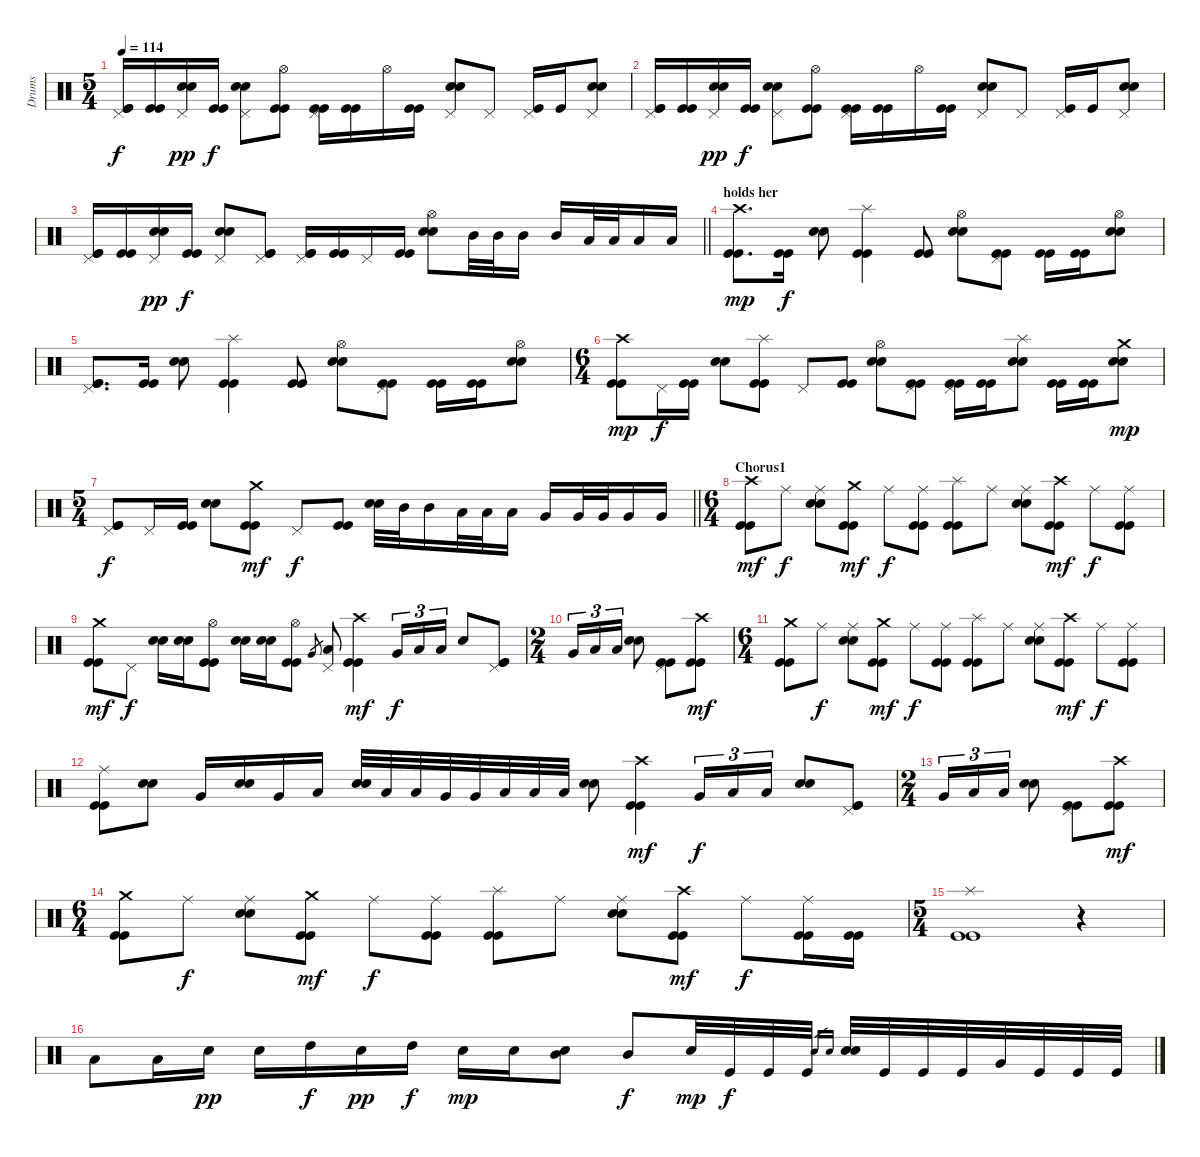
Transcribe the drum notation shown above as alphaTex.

\track ("Drums" "Drums") {instrument percussion}
\staff {score}
\articulation defaults
\ts (5 4)
\tempo 114
\clef neutral
\ks c
("Kick (hit)" "Kick (hit)" "Pedal Hi-Hat (hit)").16{dy f} ("Kick (hit)" "Kick (hit)").16 ("Snare (hit) 2" "Electric Snare (hit)" "Pedal Hi-Hat (hit)").16{dy pp} ("Kick (hit)" "Kick (hit)").16{dy f} ("Snare (hit) 2" "Electric Snare (hit)" "Pedal Hi-Hat (hit)").8 ("Kick (hit)" "Kick (hit)" "Hi-Hat (open)").8 ("Kick (hit)" "Kick (hit)" "Pedal Hi-Hat (hit)").16 ("Kick (hit)" "Kick (hit)").16 "Hi-Hat (open)".16 ("Kick (hit)" "Kick (hit)").16 ("Snare (hit) 2" "Electric Snare (hit)" "Pedal Hi-Hat (hit)").8 "Pedal Hi-Hat (hit)".8 ("Kick (hit)" "Pedal Hi-Hat (hit)").16 "Kick (hit)".16 ("Snare (hit) 2" "Electric Snare (hit)" "Pedal Hi-Hat (hit)").8 |
("Kick (hit)" "Kick (hit)" "Pedal Hi-Hat (hit)").16 ("Kick (hit)" "Kick (hit)").16 ("Snare (hit) 2" "Electric Snare (hit)" "Pedal Hi-Hat (hit)").16{dy pp} ("Kick (hit)" "Kick (hit)").16{dy f} ("Snare (hit) 2" "Electric Snare (hit)" "Pedal Hi-Hat (hit)").8 ("Kick (hit)" "Kick (hit)" "Hi-Hat (open)").8 ("Kick (hit)" "Kick (hit)" "Pedal Hi-Hat (hit)").16 ("Kick (hit)" "Kick (hit)").16 "Hi-Hat (open)".16 ("Kick (hit)" "Kick (hit)").16 ("Snare (hit) 2" "Electric Snare (hit)" "Pedal Hi-Hat (hit)").8 "Pedal Hi-Hat (hit)".8 ("Kick (hit)" "Pedal Hi-Hat (hit)").16 "Kick (hit)".16 ("Snare (hit) 2" "Electric Snare (hit)" "Pedal Hi-Hat (hit)").8 |
\barLineRight lightlight
("Kick (hit)" "Kick (hit)" "Pedal Hi-Hat (hit)").16 ("Kick (hit)" "Kick (hit)").16 ("Snare (hit) 2" "Electric Snare (hit)" "Pedal Hi-Hat (hit)").16{dy pp} ("Kick (hit)" "Kick (hit)").16{dy f} ("Snare (hit) 2" "Electric Snare (hit)" "Pedal Hi-Hat (hit)").8 ("Kick (hit)" "Kick (hit)" "Pedal Hi-Hat (hit)").8 ("Kick (hit)" "Kick (hit)" "Pedal Hi-Hat (hit)").16 ("Kick (hit)" "Kick (hit)").16 "Pedal Hi-Hat (hit)".16 ("Kick (hit)" "Kick (hit)").16 ("Snare (hit) 2" "Electric Snare (hit)" "Hi-Hat (open)").8 "Mid Tom (hit)".32 "Mid Tom (hit)".32 "Mid Tom (hit)".16 "Mid Tom (hit)".16 "Low Tom (hit)".32 "Low Tom (hit)".32 "Low Tom (hit)".16 "Low Tom (hit)".16 |
\section ("" "holds her")
("Kick (hit)" "Kick (hit)" "Crash high (hit)").8{d dy mp volume 16} ("Kick (hit)" "Kick (hit)").16{dy f} ("Snare (hit) 2" "Electric Snare (hit)").8 ("Kick (hit)" "Kick (hit)" "Splash (hit)").4 ("Kick (hit)" "Kick (hit)").8 ("Snare (hit) 2" "Electric Snare (hit)" "Hi-Hat (open)").8 ("Kick (hit)" "Kick (hit)" "Pedal Hi-Hat (hit)").8 ("Kick (hit)" "Kick (hit)").16 ("Kick (hit)" "Kick (hit)").16 ("Snare (hit) 2" "Electric Snare (hit)" "Hi-Hat (open)").8 |
("Kick (hit)" "Kick (hit)" "Pedal Hi-Hat (hit)").8{d volume 16} ("Kick (hit)" "Kick (hit)").16 ("Snare (hit) 2" "Electric Snare (hit)").8 ("Kick (hit)" "Kick (hit)" "Splash (hit)").4 ("Kick (hit)" "Kick (hit)").8 ("Snare (hit) 2" "Electric Snare (hit)" "Hi-Hat (open)").8 ("Kick (hit)" "Kick (hit)" "Pedal Hi-Hat (hit)").8 ("Kick (hit)" "Kick (hit)").16 ("Kick (hit)" "Kick (hit)").16 ("Snare (hit) 2" "Electric Snare (hit)" "Hi-Hat (open)").8 |
\ts (6 4)
("Kick (hit)" "Kick (hit)" "Crash high (hit)").8{dy mp} "Pedal Hi-Hat (hit)".16{dy f} ("Kick (hit)" "Kick (hit)").16 ("Snare (hit) 2" "Electric Snare (hit)").8 ("Kick (hit)" "Kick (hit)" "Splash (hit)").8 "Pedal Hi-Hat (hit)".8 ("Kick (hit)" "Kick (hit)").8 ("Snare (hit) 2" "Electric Snare (hit)" "Hi-Hat (open)").8 ("Kick (hit)" "Kick (hit)" "Pedal Hi-Hat (hit)").8 ("Kick (hit)" "Kick (hit)" "Pedal Hi-Hat (hit)").16 ("Kick (hit)" "Kick (hit)").16 ("Snare (hit) 2" "Electric Snare (hit)" "Splash (hit)").8 ("Kick (hit)" "Kick (hit)").16 ("Kick (hit)" "Kick (hit)").16 ("Snare (hit) 2" "Electric Snare (hit)" "Crash medium (hit)").8{dy mp} |
\ts (5 4)
\barLineRight lightlight
("Kick (hit)" "Kick (hit)" "Pedal Hi-Hat (hit)").8{dy f} "Pedal Hi-Hat (hit)".16 ("Kick (hit)" "Kick (hit)").16 ("Snare (hit) 2" "Electric Snare (hit)").8 ("Kick (hit)" "Kick (hit)" "Crash medium (hit)").8{dy mf} "Pedal Hi-Hat (hit)".8{dy f} ("Kick (hit)" "Kick (hit)").8 ("Snare (hit) 2" "Electric Snare (hit)").32 "Mid Tom (hit)".32 "Mid Tom (hit)".16 "Low Tom (hit)".32 "Low Tom (hit)".32 "Low Tom (hit)".16 "Very Low Tom (hit)".16 "Very Low Tom (hit)".32 "Very Low Tom (hit)".32 "Very Low Tom (hit)".16 "Very Low Tom (hit)".16 |
\ts (6 4)
\section ("" "Chorus1")
("Kick (hit)" "Kick (hit)" "Crash high (hit)").8{dy mf} "Ride (middle)".8{dy f} ("Snare (hit) 2" "Electric Snare (hit)" "Ride (middle)").8 ("Kick (hit)" "Kick (hit)" "Crash medium (hit)").8{dy mf} "Ride (middle)".8{dy f} ("Kick (hit)" "Kick (hit)" "Ride (middle)").8 ("Kick (hit)" "Kick (hit)" "Splash (hit)").8 "Ride (middle)".8 ("Snare (hit) 2" "Electric Snare (hit)" "Ride (middle)").8 ("Kick (hit)" "Kick (hit)" "Crash high (hit)").8{dy mf} "Ride (middle)".8{dy f} ("Kick (hit)" "Kick (hit)" "Ride (middle)").8 |
("Kick (hit)" "Kick (hit)" "Crash medium (hit)").8{dy mf} "Pedal Hi-Hat (hit)".8{dy f} ("Snare (hit) 2" "Electric Snare (hit)").16 ("Snare (hit) 2" "Electric Snare (hit)").16 ("Kick (hit)" "Kick (hit)" "Hi-Hat (open)").8 ("Snare (hit) 2" "Electric Snare (hit)").16 ("Snare (hit) 2" "Electric Snare (hit)").16 ("Kick (hit)" "Kick (hit)" "Hi-Hat (open)").8 "Very Low Tom (hit)".8{gr} ("Low Tom (hit)" "Pedal Hi-Hat (hit)").8 ("Kick (hit)" "Kick (hit)" "Crash high (hit)").4{dy mf} "Very Low Tom (hit)".16{tu (3 2) dy f} "Low Tom (hit)".16{tu (3 2)} "Low Tom (hit)".16{tu (3 2)} "Snare (hit) 2".8 ("Kick (hit)" "Kick (hit)" "Pedal Hi-Hat (hit)").8 |
\ts (2 4)
"Very Low Tom (hit)".16{tu (3 2)} "Low Tom (hit)".16{tu (3 2)} "Low Tom (hit)".16{tu (3 2)} ("Snare (hit) 2" "Electric Snare (hit)").8 ("Kick (hit)" "Kick (hit)" "Pedal Hi-Hat (hit)").8 ("Kick (hit)" "Kick (hit)" "Crash high (hit)").8{dy mf} |
\ts (6 4)
("Kick (hit)" "Kick (hit)" "Crash medium (hit)").8 "Ride (middle)".8{dy f} ("Snare (hit) 2" "Electric Snare (hit)" "Ride (middle)").8 ("Kick (hit)" "Kick (hit)" "Crash medium (hit)").8{dy mf} "Ride (middle)".8{dy f} ("Kick (hit)" "Kick (hit)" "Ride (middle)").8 ("Kick (hit)" "Kick (hit)" "Splash (hit)").8 "Ride (middle)".8 ("Snare (hit) 2" "Electric Snare (hit)" "Ride (middle)").8 ("Kick (hit)" "Kick (hit)" "Crash high (hit)").8{dy mf} "Ride (middle)".8{dy f} ("Kick (hit)" "Kick (hit)" "Ride (middle)").8 |
("Kick (hit)" "Kick (hit)" "Ride (middle)").8 ("Snare (hit) 2" "Electric Snare (hit)").8 "Very Low Tom (hit)".16 ("Snare (hit) 2" "Electric Snare (hit)").16 "Very Low Tom (hit)".16 "Low Floor Tom (hit)".16 ("Snare (hit) 2" "Electric Snare (hit)").32 "Low Tom (hit)".32 "Low Tom (hit)".32 "Very Low Tom (hit)".32 "Very Low Tom (hit)".32 "Low Floor Tom (hit)".32 "Low Floor Tom (hit)".32 "Low Floor Tom (hit)".32 ("Snare (hit) 2" "Electric Snare (hit)").8 ("Kick (hit)" "Kick (hit)" "Crash high (hit)").4{dy mf} "Very Low Tom (hit)".16{tu (3 2) dy f} "Low Tom (hit)".16{tu (3 2)} "Low Tom (hit)".16{tu (3 2)} ("Snare (hit) 2" "Electric Snare (hit)").8 ("Kick (hit)" "Kick (hit)" "Pedal Hi-Hat (hit)").8 |
\ts (2 4)
"Very Low Tom (hit)".16{tu (3 2)} "Low Tom (hit)".16{tu (3 2)} "Low Tom (hit)".16{tu (3 2)} ("Snare (hit) 2" "Electric Snare (hit)").8 ("Kick (hit)" "Kick (hit)" "Pedal Hi-Hat (hit)").8 ("Kick (hit)" "Kick (hit)" "Crash high (hit)").8{dy mf} |
\ts (6 4)
("Kick (hit)" "Kick (hit)" "Crash medium (hit)").8 "Ride (middle)".8{dy f} ("Snare (hit) 2" "Electric Snare (hit)" "Ride (middle)").8 ("Kick (hit)" "Kick (hit)" "Crash medium (hit)").8{dy mf} "Ride (middle)".8{dy f} ("Kick (hit)" "Kick (hit)" "Ride (middle)").8 ("Kick (hit)" "Kick (hit)" "Splash (hit)").8 "Ride (middle)".8 ("Snare (hit) 2" "Electric Snare (hit)" "Ride (middle)").8 ("Kick (hit)" "Kick (hit)" "Crash high (hit)").8{dy mf} "Ride (middle)".8{dy f} ("Kick (hit)" "Kick (hit)" "Ride (middle)").16 ("Kick (hit)" "Kick (hit)").16 |
\ts (5 4)
("Kick (hit)" "Kick (hit)" "Splash (hit)").1 r.4 |
"Low Tom (hit)".8 "Low Tom (hit)".16 "Snare (hit) 2".16{dy pp} "Snare (hit) 2".16 "High Tom (hit)".16{dy f} "Snare (hit) 2".16{dy pp} "High Tom (hit)".16{dy f} "Snare (hit) 2".16{dy mp} "Snare (hit) 2".16 ("Snare (hit) 2" "Mid Tom (hit)").8 "Mid Tom (hit)".8{dy f} "Snare (hit) 2".32{dy mp} "Kick (hit)".32{dy f} "Kick (hit)".32 "Kick (hit)".32 "Electric Snare (hit)".16{gr} "Snare (hit) 2".16{gr} ("Electric Snare (hit)" "Snare (hit) 2").32 "Kick (hit)".32 "Kick (hit)".32 "Kick (hit)".32 "Very Low Tom (hit)".32 "Kick (hit)".32 "Kick (hit)".32 "Kick (hit)".32
